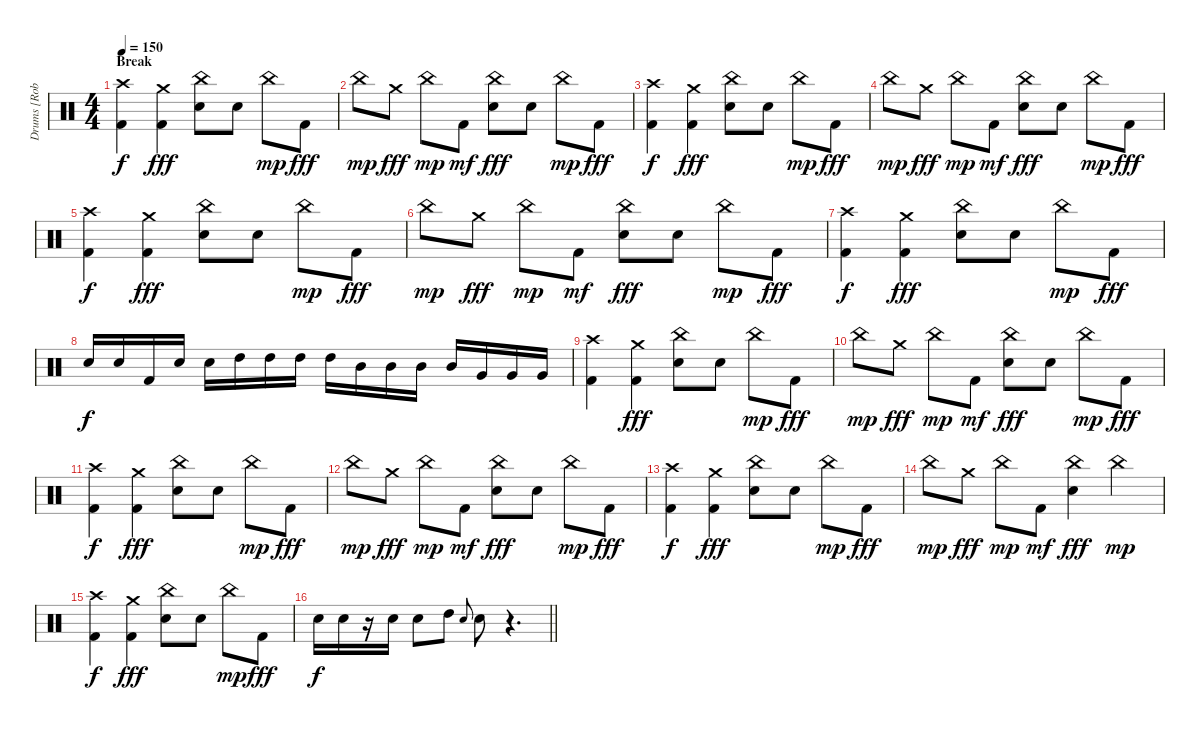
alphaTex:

\track ("Drums [Rob Bourdon]" "Drums [Rob") {instrument percussion}
\staff {score}
\articulation defaults
\ts (4 4)
\section ("" "Break")
\tempo 150
\clef neutral
\ks c
("Crash high (hit)" "Kick (hit) 2").4{dy f} ("Crash medium (hit)" "Kick (hit) 2").4{dy fff} ("China (hit)" "Snare (hit) 2").8 "Snare (hit) 2".8 "China (hit)".8{dy mp} "Kick (hit) 2".8{dy fff} |
"China (hit)".8{dy mp} "Crash medium (hit)".8{dy fff} "China (hit)".8{dy mp} "Kick (hit) 2".8{dy mf} ("China (hit)" "Snare (hit) 2").8{dy fff} "Snare (hit) 2".8 "China (hit)".8{dy mp} "Kick (hit) 2".8{dy fff} |
("Crash high (hit)" "Kick (hit) 2").4{dy f} ("Crash medium (hit)" "Kick (hit) 2").4{dy fff} ("China (hit)" "Snare (hit) 2").8 "Snare (hit) 2".8 "China (hit)".8{dy mp} "Kick (hit) 2".8{dy fff} |
"China (hit)".8{dy mp} "Crash medium (hit)".8{dy fff} "China (hit)".8{dy mp} "Kick (hit) 2".8{dy mf} ("China (hit)" "Snare (hit) 2").8{dy fff} "Snare (hit) 2".8 "China (hit)".8{dy mp} "Kick (hit) 2".8{dy fff} |
("Crash high (hit)" "Kick (hit) 2").4{dy f} ("Crash medium (hit)" "Kick (hit) 2").4{dy fff} ("China (hit)" "Snare (hit) 2").8 "Snare (hit) 2".8 "China (hit)".8{dy mp} "Kick (hit) 2".8{dy fff} |
"China (hit)".8{dy mp} "Crash medium (hit)".8{dy fff} "China (hit)".8{dy mp} "Kick (hit) 2".8{dy mf} ("China (hit)" "Snare (hit) 2").8{dy fff} "Snare (hit) 2".8 "China (hit)".8{dy mp} "Kick (hit) 2".8{dy fff} |
("Crash high (hit)" "Kick (hit) 2").4{dy f} ("Crash medium (hit)" "Kick (hit) 2").4{dy fff} ("China (hit)" "Snare (hit) 2").8 "Snare (hit) 2".8 "China (hit)".8{dy mp} "Kick (hit) 2".8{dy fff} |
"Snare (hit) 2".16{dy f} "Snare (hit) 2".16 "Kick (hit) 2".16 "Snare (hit) 2".16 "Snare (hit) 2".16 "High Tom (hit)".16 "High Tom (hit)".16 "High Tom (hit)".16 "High Tom (hit)".16 "Mid Tom (hit)".16 "Mid Tom (hit)".16 "Mid Tom (hit)".16 "Mid Tom (hit)".16 "Very Low Tom (hit)".16 "Very Low Tom (hit)".16 "Very Low Tom (hit)".16 |
("Crash high (hit)" "Kick (hit) 2").4 ("Crash medium (hit)" "Kick (hit) 2").4{dy fff} ("China (hit)" "Snare (hit) 2").8 "Snare (hit) 2".8 "China (hit)".8{dy mp} "Kick (hit) 2".8{dy fff} |
"China (hit)".8{dy mp} "Crash medium (hit)".8{dy fff} "China (hit)".8{dy mp} "Kick (hit) 2".8{dy mf} ("China (hit)" "Snare (hit) 2").8{dy fff} "Snare (hit) 2".8 "China (hit)".8{dy mp} "Kick (hit) 2".8{dy fff} |
("Crash high (hit)" "Kick (hit) 2").4{dy f} ("Crash medium (hit)" "Kick (hit) 2").4{dy fff} ("China (hit)" "Snare (hit) 2").8 "Snare (hit) 2".8 "China (hit)".8{dy mp} "Kick (hit) 2".8{dy fff} |
"China (hit)".8{dy mp} "Crash medium (hit)".8{dy fff} "China (hit)".8{dy mp} "Kick (hit) 2".8{dy mf} ("China (hit)" "Snare (hit) 2").8{dy fff} "Snare (hit) 2".8 "China (hit)".8{dy mp} "Kick (hit) 2".8{dy fff} |
("Crash high (hit)" "Kick (hit) 2").4{dy f} ("Crash medium (hit)" "Kick (hit) 2").4{dy fff} ("China (hit)" "Snare (hit) 2").8 "Snare (hit) 2".8 "China (hit)".8{dy mp} "Kick (hit) 2".8{dy fff} |
"China (hit)".8{dy mp} "Crash medium (hit)".8{dy fff} "China (hit)".8{dy mp} "Kick (hit) 2".8{dy mf} ("China (hit)" "Snare (hit) 2").4{dy fff} "China (hit)".4{dy mp} |
("Crash high (hit)" "Kick (hit) 2").4{dy f} ("Crash medium (hit)" "Kick (hit) 2").4{dy fff} ("China (hit)" "Snare (hit) 2").8 "Snare (hit) 2".8 "China (hit)".8{dy mp} "Kick (hit) 2".8{dy fff} |
\barLineRight lightlight "Snare (hit) 2".16{dy f} "Snare (hit) 2".16
r.16 "Snare (hit) 2".16 "Snare (hit) 2".8 "High Tom (hit)".8 "Snare (hit) 2".8{gr onbeat} "Snare (hit) 2".8 r.4{d}
